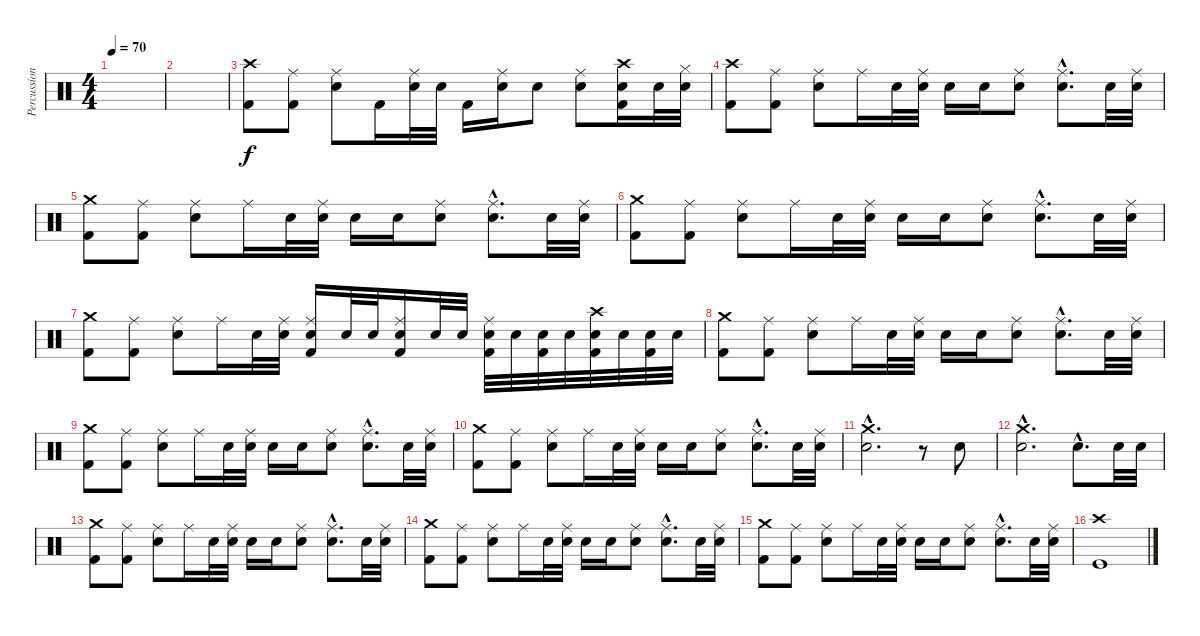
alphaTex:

\track ("Percussion" "Percussion") {instrument percussion}
\staff {score}
\articulation defaults
\ts (4 4)
\tempo 70
\clef neutral
\ks c
|
|
("Crash high (hit)" "Kick (hit) 2").8 ("Ride (middle)" "Kick (hit) 2").8 ("Ride (middle)" "Electric Snare (hit)").8 "Kick (hit) 2".16 ("Ride (middle)" "Electric Snare (hit)").32 "Electric Snare (hit)".32 "Kick (hit) 2".16 ("Ride (middle)" "Electric Snare (hit)").16 "Electric Snare (hit)".8 ("Ride (middle)" "Electric Snare (hit)").8 ("Crash high (hit)" "Electric Snare (hit)" "Kick (hit) 2").16 "Electric Snare (hit)".32 ("Hi-Hat (closed)" "Electric Snare (hit)").32 |
("Crash high (hit)" "Kick (hit) 2").8 ("Ride (middle)" "Kick (hit) 2").8 ("Ride (middle)" "Electric Snare (hit)").8 "Ride (middle)".16 "Electric Snare (hit)".32 ("Ride (middle)" "Electric Snare (hit)").32 "Electric Snare (hit)".16 "Electric Snare (hit)".16 ("Ride (middle)" "Electric Snare (hit)").8 ("Ride (middle)"{hac} "Electric Snare (hit)"{hac}).8{d} "Electric Snare (hit)".32 ("Ride (middle)" "Electric Snare (hit)").32 |
("Crash medium (hit)" "Kick (hit) 2").8 ("Ride (middle)" "Kick (hit) 2").8 ("Ride (middle)" "Electric Snare (hit)").8 "Ride (middle)".16 "Electric Snare (hit)".32 ("Ride (middle)" "Electric Snare (hit)").32 "Electric Snare (hit)".16 "Electric Snare (hit)".16 ("Ride (middle)" "Electric Snare (hit)").8 ("Ride (middle)"{hac} "Electric Snare (hit)"{hac}).8{d} "Electric Snare (hit)".32 ("Ride (middle)" "Electric Snare (hit)").32 |
("Crash medium (hit)" "Kick (hit) 2").8 ("Ride (middle)" "Kick (hit) 2").8 ("Ride (middle)" "Electric Snare (hit)").8 "Ride (middle)".16 "Electric Snare (hit)".32 ("Ride (middle)" "Electric Snare (hit)").32 "Electric Snare (hit)".16 "Electric Snare (hit)".16 ("Ride (middle)" "Electric Snare (hit)").8 ("Ride (middle)"{hac} "Electric Snare (hit)"{hac}).8{d} "Electric Snare (hit)".32 ("Ride (middle)" "Electric Snare (hit)").32 |
("Crash medium (hit)" "Kick (hit) 2").8 ("Ride (middle)" "Kick (hit) 2").8 ("Ride (middle)" "Electric Snare (hit)").8 "Ride (middle)".16 "Electric Snare (hit)".32 ("Ride (middle)" "Electric Snare (hit)").32 ("Ride (middle)" "Electric Snare (hit)" "Kick (hit) 2").16 "Electric Snare (hit)".32 "Electric Snare (hit)".32 ("Ride (middle)" "Electric Snare (hit)" "Kick (hit) 2").16 "Electric Snare (hit)".32 "Electric Snare (hit)".32 ("Ride (middle)" "Electric Snare (hit)" "Kick (hit) 2").32 "Electric Snare (hit)".32 ("Electric Snare (hit)" "Kick (hit) 2").32 "Electric Snare (hit)".32 ("Crash high (hit)" "Electric Snare (hit)" "Kick (hit) 2").32 "Electric Snare (hit)".32 ("Electric Snare (hit)" "Kick (hit) 2").32 "Electric Snare (hit)".32 |
("Crash medium (hit)" "Kick (hit) 2").8 ("Ride (middle)" "Kick (hit) 2").8 ("Ride (middle)" "Electric Snare (hit)").8 "Ride (middle)".16 "Electric Snare (hit)".32 ("Ride (middle)" "Electric Snare (hit)").32 "Electric Snare (hit)".16 "Electric Snare (hit)".16 ("Ride (middle)" "Electric Snare (hit)").8 ("Ride (middle)"{hac} "Electric Snare (hit)"{hac}).8{d} "Electric Snare (hit)".32 ("Ride (middle)" "Electric Snare (hit)").32 |
("Crash medium (hit)" "Kick (hit) 2").8 ("Ride (middle)" "Kick (hit) 2").8 ("Ride (middle)" "Electric Snare (hit)").8 "Ride (middle)".16 "Electric Snare (hit)".32 ("Ride (middle)" "Electric Snare (hit)").32 "Electric Snare (hit)".16 "Electric Snare (hit)".16 ("Ride (middle)" "Electric Snare (hit)").8 ("Ride (middle)"{hac} "Electric Snare (hit)"{hac}).8{d} "Electric Snare (hit)".32 ("Ride (middle)" "Electric Snare (hit)").32 |
("Crash medium (hit)" "Kick (hit) 2").8 ("Ride (middle)" "Kick (hit) 2").8 ("Ride (middle)" "Electric Snare (hit)").8 "Ride (middle)".16 "Electric Snare (hit)".32 ("Ride (middle)" "Electric Snare (hit)").32 "Electric Snare (hit)".16 "Electric Snare (hit)".16 ("Ride (middle)" "Electric Snare (hit)").8 ("Ride (middle)"{hac} "Electric Snare (hit)"{hac}).8{d} "Electric Snare (hit)".32 ("Ride (middle)" "Electric Snare (hit)").32 |
("Crash medium (hit)"{hac} "Electric Snare (hit)"{hac}).2{d} r.8 "Electric Snare (hit)".8 |
("Crash medium (hit)"{hac} "Electric Snare (hit)"{hac}).2{d} "Electric Snare (hit)"{hac}.8{d} "Electric Snare (hit)".32 "Electric Snare (hit)".32 |
("Crash medium (hit)" "Kick (hit) 2").8 ("Ride (middle)" "Kick (hit) 2").8 ("Ride (middle)" "Electric Snare (hit)").8 "Ride (middle)".16 "Electric Snare (hit)".32 ("Ride (middle)" "Electric Snare (hit)").32 "Electric Snare (hit)".16 "Electric Snare (hit)".16 ("Ride (middle)" "Electric Snare (hit)").8 ("Ride (middle)"{hac} "Electric Snare (hit)"{hac}).8{d} "Electric Snare (hit)".32 ("Ride (middle)" "Electric Snare (hit)").32 |
("Crash medium (hit)" "Kick (hit) 2").8 ("Ride (middle)" "Kick (hit) 2").8 ("Ride (middle)" "Electric Snare (hit)").8 "Ride (middle)".16 "Electric Snare (hit)".32 ("Ride (middle)" "Electric Snare (hit)").32 "Electric Snare (hit)".16 "Electric Snare (hit)".16 ("Ride (middle)" "Electric Snare (hit)").8 ("Ride (middle)"{hac} "Electric Snare (hit)"{hac}).8{d} "Electric Snare (hit)".32 ("Ride (middle)" "Electric Snare (hit)").32 |
("Crash medium (hit)" "Kick (hit) 2").8 ("Ride (middle)" "Kick (hit) 2").8 ("Ride (middle)" "Electric Snare (hit)").8 "Ride (middle)".16 "Electric Snare (hit)".32 ("Ride (middle)" "Electric Snare (hit)").32 "Electric Snare (hit)".16 "Electric Snare (hit)".16 ("Ride (middle)" "Electric Snare (hit)").8 ("Ride (middle)"{hac} "Electric Snare (hit)"{hac}).8{d} "Electric Snare (hit)".32 ("Ride (middle)" "Electric Snare (hit)").32 |
("Crash high (hit)" "Kick (hit)").1
